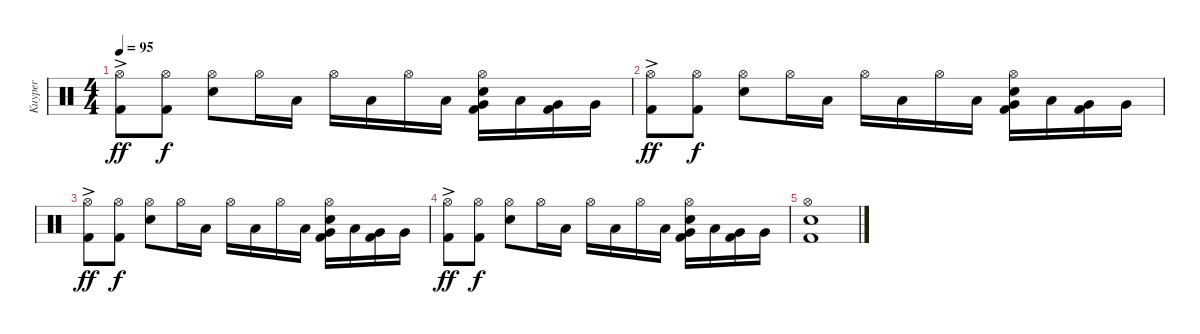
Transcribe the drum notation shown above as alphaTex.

\track ("Kuyper" "Kuyper") {instrument percussion}
\staff {score}
\articulation defaults
\ts (4 4)
\tempo 95
\clef neutral
\ks c
("Hi-Hat (open)"{ac} "Kick (hit) 2").8{dy ff} ("Hi-Hat (open)" "Kick (hit) 2").8{dy f} ("Hi-Hat (open)" "Snare (hit) 2").8 "Hi-Hat (open)".16 "Low Floor Tom (hit)".16 "Hi-Hat (open)".16 "Low Floor Tom (hit)".16 "Hi-Hat (open)".16 "Low Floor Tom (hit)".16 ("Hi-Hat (open)" "Very Low Tom (hit)" "Snare (hit) 2" "Kick (hit) 2").16 "Low Floor Tom (hit)".16 ("Very Low Tom (hit)" "Kick (hit) 2").16 "Very Low Tom (hit)".16 |
("Hi-Hat (open)"{ac} "Kick (hit) 2").8{dy ff} ("Hi-Hat (open)" "Kick (hit) 2").8{dy f} ("Hi-Hat (open)" "Snare (hit) 2").8 "Hi-Hat (open)".16 "Low Floor Tom (hit)".16 "Hi-Hat (open)".16 "Low Floor Tom (hit)".16 "Hi-Hat (open)".16 "Low Floor Tom (hit)".16 ("Hi-Hat (open)" "Very Low Tom (hit)" "Snare (hit) 2" "Kick (hit) 2").16 "Low Floor Tom (hit)".16 ("Very Low Tom (hit)" "Kick (hit) 2").16 "Very Low Tom (hit)".16 |
("Hi-Hat (open)"{ac} "Kick (hit) 2").8{dy ff} ("Hi-Hat (open)" "Kick (hit) 2").8{dy f} ("Hi-Hat (open)" "Snare (hit) 2").8 "Hi-Hat (open)".16 "Low Floor Tom (hit)".16 "Hi-Hat (open)".16 "Low Floor Tom (hit)".16 "Hi-Hat (open)".16 "Low Floor Tom (hit)".16 ("Hi-Hat (open)" "Very Low Tom (hit)" "Snare (hit) 2" "Kick (hit) 2").16 "Low Floor Tom (hit)".16 ("Very Low Tom (hit)" "Kick (hit) 2").16 "Very Low Tom (hit)".16 |
("Hi-Hat (open)"{ac} "Kick (hit) 2").8{dy ff} ("Hi-Hat (open)" "Kick (hit) 2").8{dy f} ("Hi-Hat (open)" "Snare (hit) 2").8 "Hi-Hat (open)".16 "Low Floor Tom (hit)".16 "Hi-Hat (open)".16 "Low Floor Tom (hit)".16 "Hi-Hat (open)".16 "Low Floor Tom (hit)".16 ("Hi-Hat (open)" "Very Low Tom (hit)" "Snare (hit) 2" "Kick (hit) 2").16 "Low Floor Tom (hit)".16 ("Very Low Tom (hit)" "Kick (hit) 2").16 "Very Low Tom (hit)".16 |
("Hi-Hat (open)" "Snare (hit) 2" "Kick (hit) 2").1
